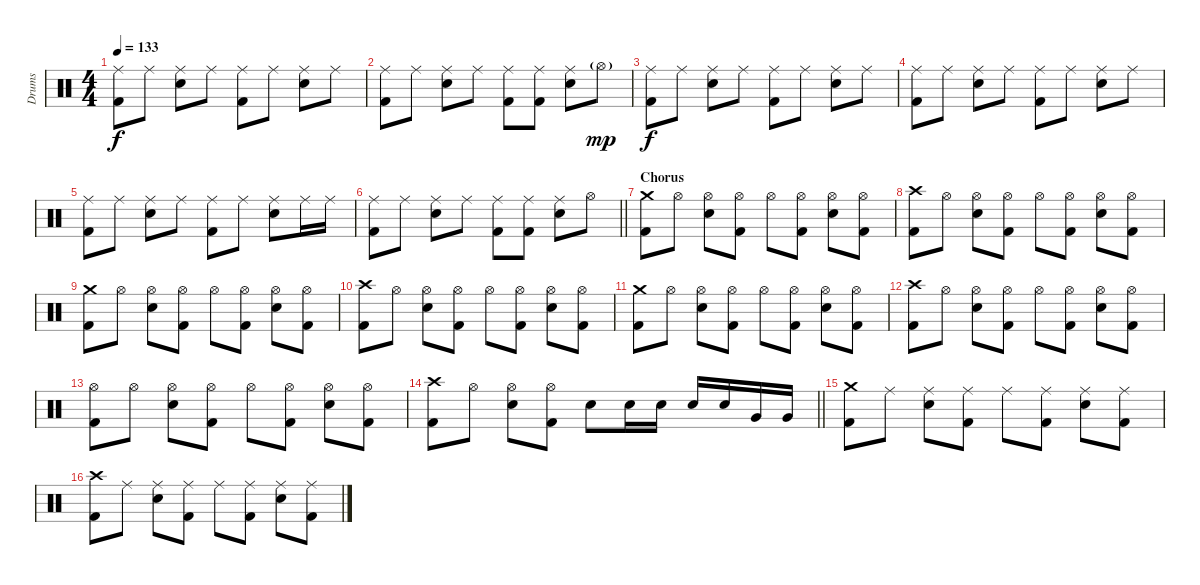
\track ("Drums" "Drums") {instrument percussion}
\staff {score}
\articulation defaults
\ts (4 4)
\tempo 133
\clef neutral
\ks c
("Ride (middle)" "Kick (hit) 2").8{dy f} "Ride (middle)".8 ("Ride (middle)" "Snare (hit) 2").8 "Ride (middle)".8 ("Ride (middle)" "Kick (hit) 2").8 "Ride (middle)".8 ("Ride (middle)" "Snare (hit) 2").8 "Ride (middle)".8 |
("Ride (middle)" "Kick (hit) 2").8 "Ride (middle)".8 ("Ride (middle)" "Snare (hit) 2").8 "Ride (middle)".8 ("Ride (middle)" "Kick (hit) 2").8 ("Ride (middle)" "Kick (hit) 2").8 ("Ride (middle)" "Snare (hit) 2").8 "Hi-Hat (open)"{g}.8{dy mp} |
("Ride (middle)" "Kick (hit) 2").8{dy f} "Ride (middle)".8 ("Ride (middle)" "Snare (hit) 2").8 "Ride (middle)".8 ("Ride (middle)" "Kick (hit) 2").8 "Ride (middle)".8 ("Ride (middle)" "Snare (hit) 2").8 "Ride (middle)".8 |
("Ride (middle)" "Kick (hit) 2").8 "Ride (middle)".8 ("Ride (middle)" "Snare (hit) 2").8 "Ride (middle)".8 ("Ride (middle)" "Kick (hit) 2").8 "Ride (middle)".8 ("Ride (middle)" "Snare (hit) 2").8 "Ride (middle)".8 |
("Ride (middle)" "Kick (hit) 2").8 "Ride (middle)".8 ("Ride (middle)" "Snare (hit) 2").8 "Ride (middle)".8 ("Ride (middle)" "Kick (hit) 2").8 "Ride (middle)".8 ("Ride (middle)" "Snare (hit) 2").8 "Ride (middle)".16 "Ride (middle)".16 |
\barLineRight lightlight
("Ride (middle)" "Kick (hit) 2").8 "Ride (middle)".8 ("Ride (middle)" "Snare (hit) 2").8 "Ride (middle)".8 ("Ride (middle)" "Kick (hit) 2").8 ("Ride (middle)" "Kick (hit) 2").8 ("Ride (middle)" "Snare (hit) 2").8 "Hi-Hat (open)".8 |
\section ("" "Chorus")
("Crash medium (hit)" "Kick (hit) 2").8 "Hi-Hat (open)".8 ("Hi-Hat (open)" "Snare (hit) 2").8 ("Hi-Hat (open)" "Kick (hit) 2").8 "Hi-Hat (open)".8 ("Hi-Hat (open)" "Kick (hit) 2").8 ("Hi-Hat (open)" "Snare (hit) 2").8 ("Hi-Hat (open)" "Kick (hit) 2").8 |
("Crash high (hit)" "Kick (hit) 2").8 "Hi-Hat (open)".8 ("Hi-Hat (open)" "Snare (hit) 2").8 ("Hi-Hat (open)" "Kick (hit) 2").8 "Hi-Hat (open)".8 ("Hi-Hat (open)" "Kick (hit) 2").8 ("Hi-Hat (open)" "Snare (hit) 2").8 ("Hi-Hat (open)" "Kick (hit) 2").8 |
("Crash medium (hit)" "Kick (hit) 2").8 "Hi-Hat (open)".8 ("Hi-Hat (open)" "Snare (hit) 2").8 ("Hi-Hat (open)" "Kick (hit) 2").8 "Hi-Hat (open)".8 ("Hi-Hat (open)" "Kick (hit) 2").8 ("Hi-Hat (open)" "Snare (hit) 2").8 ("Hi-Hat (open)" "Kick (hit) 2").8 |
("Crash high (hit)" "Kick (hit) 2").8 "Hi-Hat (open)".8 ("Hi-Hat (open)" "Snare (hit) 2").8 ("Hi-Hat (open)" "Kick (hit) 2").8 "Hi-Hat (open)".8 ("Hi-Hat (open)" "Kick (hit) 2").8 ("Hi-Hat (open)" "Snare (hit) 2").8 ("Hi-Hat (open)" "Kick (hit) 2").8 |
("Crash medium (hit)" "Kick (hit) 2").8 "Hi-Hat (open)".8 ("Hi-Hat (open)" "Snare (hit) 2").8 ("Hi-Hat (open)" "Kick (hit) 2").8 "Hi-Hat (open)".8 ("Hi-Hat (open)" "Kick (hit) 2").8 ("Hi-Hat (open)" "Snare (hit) 2").8 ("Hi-Hat (open)" "Kick (hit) 2").8 |
("Crash high (hit)" "Kick (hit) 2").8 "Hi-Hat (open)".8 ("Hi-Hat (open)" "Snare (hit) 2").8 ("Hi-Hat (open)" "Kick (hit) 2").8 "Hi-Hat (open)".8 ("Hi-Hat (open)" "Kick (hit) 2").8 ("Hi-Hat (open)" "Snare (hit) 2").8 ("Hi-Hat (open)" "Kick (hit) 2").8 |
("Hi-Hat (open)" "Kick (hit) 2").8 "Hi-Hat (open)".8 ("Hi-Hat (open)" "Snare (hit) 2").8 ("Hi-Hat (open)" "Kick (hit) 2").8 "Hi-Hat (open)".8 ("Hi-Hat (open)" "Kick (hit) 2").8 ("Hi-Hat (open)" "Snare (hit) 2").8 ("Hi-Hat (open)" "Kick (hit) 2").8 |
\barLineRight lightlight
("Crash high (hit)" "Kick (hit) 2").8 "Hi-Hat (open)".8 ("Hi-Hat (open)" "Snare (hit) 2").8 ("Hi-Hat (open)" "Kick (hit) 2").8 "Snare (hit) 2".8 "Snare (hit) 2".16 "Snare (hit) 2".16 "Snare (hit) 2".16 "Snare (hit) 2".16 "Very Low Tom (hit)".16 "Very Low Tom (hit)".16 |
\section ("" "")
("Crash medium (hit)" "Kick (hit) 2").8 "Ride (middle)".8 ("Ride (middle)" "Snare (hit) 2").8 ("Ride (middle)" "Kick (hit) 2").8 "Ride (middle)".8 ("Ride (middle)" "Kick (hit) 2").8 ("Ride (middle)" "Snare (hit) 2").8 ("Ride (middle)" "Kick (hit) 2").8 |
("Crash high (hit)" "Kick (hit) 2").8 "Ride (middle)".8 ("Ride (middle)" "Snare (hit) 2").8 ("Ride (middle)" "Kick (hit) 2").8 "Ride (middle)".8 ("Ride (middle)" "Kick (hit) 2").8 ("Ride (middle)" "Snare (hit) 2").8 ("Ride (middle)" "Kick (hit) 2").8
